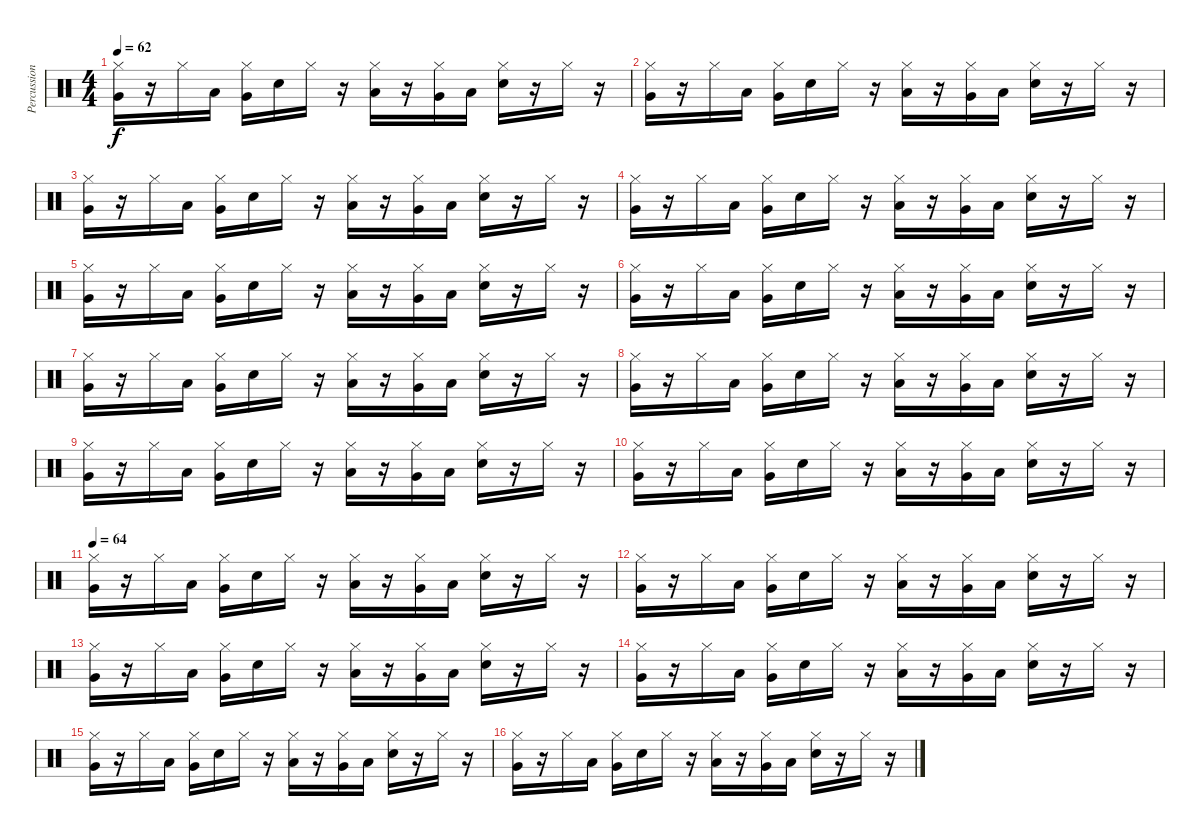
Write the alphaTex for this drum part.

\track ("Percussion" "Percussion") {instrument percussion}
\staff {score}
\articulation defaults
\ts (4 4)
\tempo 62
\clef neutral
\ks c
("Hi-Hat (closed)" "Very Low Tom (hit)").16{dy f} r.16 "Hi-Hat (closed)".16 "Low Floor Tom (hit)".16 ("Hi-Hat (closed)" "Very Low Tom (hit)").16 "Electric Snare (hit)".16 "Hi-Hat (closed)".16 r.16 ("Hi-Hat (closed)" "Low Floor Tom (hit)").16 r.16 ("Hi-Hat (closed)" "Very Low Tom (hit)").16 "Low Floor Tom (hit)".16 ("Hi-Hat (closed)" "Electric Snare (hit)").16 r.16 "Hi-Hat (closed)".16 r.16 |
("Hi-Hat (closed)" "Very Low Tom (hit)").16 r.16 "Hi-Hat (closed)".16 "Low Floor Tom (hit)".16 ("Hi-Hat (closed)" "Very Low Tom (hit)").16 "Electric Snare (hit)".16 "Hi-Hat (closed)".16 r.16 ("Hi-Hat (closed)" "Low Floor Tom (hit)").16 r.16 ("Hi-Hat (closed)" "Very Low Tom (hit)").16 "Low Floor Tom (hit)".16 ("Hi-Hat (closed)" "Electric Snare (hit)").16 r.16 "Hi-Hat (closed)".16 r.16 |
("Hi-Hat (closed)" "Very Low Tom (hit)").16 r.16 "Hi-Hat (closed)".16 "Low Floor Tom (hit)".16 ("Hi-Hat (closed)" "Very Low Tom (hit)").16 "Electric Snare (hit)".16 "Hi-Hat (closed)".16 r.16 ("Hi-Hat (closed)" "Low Floor Tom (hit)").16 r.16 ("Hi-Hat (closed)" "Very Low Tom (hit)").16 "Low Floor Tom (hit)".16 ("Hi-Hat (closed)" "Electric Snare (hit)").16 r.16 "Hi-Hat (closed)".16 r.16 |
("Hi-Hat (closed)" "Very Low Tom (hit)").16 r.16 "Hi-Hat (closed)".16 "Low Floor Tom (hit)".16 ("Hi-Hat (closed)" "Very Low Tom (hit)").16 "Electric Snare (hit)".16 "Hi-Hat (closed)".16 r.16 ("Hi-Hat (closed)" "Low Floor Tom (hit)").16 r.16 ("Hi-Hat (closed)" "Very Low Tom (hit)").16 "Low Floor Tom (hit)".16 ("Hi-Hat (closed)" "Electric Snare (hit)").16 r.16 "Hi-Hat (closed)".16 r.16 |
("Hi-Hat (closed)" "Very Low Tom (hit)").16 r.16 "Hi-Hat (closed)".16 "Low Floor Tom (hit)".16 ("Hi-Hat (closed)" "Very Low Tom (hit)").16 "Electric Snare (hit)".16 "Hi-Hat (closed)".16 r.16 ("Hi-Hat (closed)" "Low Floor Tom (hit)").16 r.16 ("Hi-Hat (closed)" "Very Low Tom (hit)").16 "Low Floor Tom (hit)".16 ("Hi-Hat (closed)" "Electric Snare (hit)").16 r.16 "Hi-Hat (closed)".16 r.16 |
("Hi-Hat (closed)" "Very Low Tom (hit)").16 r.16 "Hi-Hat (closed)".16 "Low Floor Tom (hit)".16 ("Hi-Hat (closed)" "Very Low Tom (hit)").16 "Electric Snare (hit)".16 "Hi-Hat (closed)".16 r.16 ("Hi-Hat (closed)" "Low Floor Tom (hit)").16 r.16 ("Hi-Hat (closed)" "Very Low Tom (hit)").16 "Low Floor Tom (hit)".16 ("Hi-Hat (closed)" "Electric Snare (hit)").16 r.16 "Hi-Hat (closed)".16 r.16 |
("Hi-Hat (closed)" "Very Low Tom (hit)").16 r.16 "Hi-Hat (closed)".16 "Low Floor Tom (hit)".16 ("Hi-Hat (closed)" "Very Low Tom (hit)").16 "Electric Snare (hit)".16 "Hi-Hat (closed)".16 r.16 ("Hi-Hat (closed)" "Low Floor Tom (hit)").16 r.16 ("Hi-Hat (closed)" "Very Low Tom (hit)").16 "Low Floor Tom (hit)".16 ("Hi-Hat (closed)" "Electric Snare (hit)").16 r.16 "Hi-Hat (closed)".16 r.16 |
("Hi-Hat (closed)" "Very Low Tom (hit)").16 r.16 "Hi-Hat (closed)".16 "Low Floor Tom (hit)".16 ("Hi-Hat (closed)" "Very Low Tom (hit)").16 "Electric Snare (hit)".16 "Hi-Hat (closed)".16 r.16 ("Hi-Hat (closed)" "Low Floor Tom (hit)").16 r.16 ("Hi-Hat (closed)" "Very Low Tom (hit)").16 "Low Floor Tom (hit)".16 ("Hi-Hat (closed)" "Electric Snare (hit)").16 r.16 "Hi-Hat (closed)".16 r.16 |
("Hi-Hat (closed)" "Very Low Tom (hit)").16 r.16 "Hi-Hat (closed)".16 "Low Floor Tom (hit)".16 ("Hi-Hat (closed)" "Very Low Tom (hit)").16 "Electric Snare (hit)".16 "Hi-Hat (closed)".16 r.16 ("Hi-Hat (closed)" "Low Floor Tom (hit)").16 r.16 ("Hi-Hat (closed)" "Very Low Tom (hit)").16 "Low Floor Tom (hit)".16 ("Hi-Hat (closed)" "Electric Snare (hit)").16 r.16 "Hi-Hat (closed)".16 r.16 |
("Hi-Hat (closed)" "Very Low Tom (hit)").16 r.16 "Hi-Hat (closed)".16 "Low Floor Tom (hit)".16 ("Hi-Hat (closed)" "Very Low Tom (hit)").16 "Electric Snare (hit)".16 "Hi-Hat (closed)".16 r.16 ("Hi-Hat (closed)" "Low Floor Tom (hit)").16 r.16 ("Hi-Hat (closed)" "Very Low Tom (hit)").16 "Low Floor Tom (hit)".16 ("Hi-Hat (closed)" "Electric Snare (hit)").16 r.16 "Hi-Hat (closed)".16 r.16 |
\tempo 64
("Hi-Hat (closed)" "Very Low Tom (hit)").16 r.16 "Hi-Hat (closed)".16 "Low Floor Tom (hit)".16 ("Hi-Hat (closed)" "Very Low Tom (hit)").16 "Electric Snare (hit)".16 "Hi-Hat (closed)".16 r.16 ("Hi-Hat (closed)" "Low Floor Tom (hit)").16 r.16 ("Hi-Hat (closed)" "Very Low Tom (hit)").16 "Low Floor Tom (hit)".16 ("Hi-Hat (closed)" "Electric Snare (hit)").16 r.16 "Hi-Hat (closed)".16 r.16 |
("Hi-Hat (closed)" "Very Low Tom (hit)").16 r.16 "Hi-Hat (closed)".16 "Low Floor Tom (hit)".16 ("Hi-Hat (closed)" "Very Low Tom (hit)").16 "Electric Snare (hit)".16 "Hi-Hat (closed)".16 r.16 ("Hi-Hat (closed)" "Low Floor Tom (hit)").16 r.16 ("Hi-Hat (closed)" "Very Low Tom (hit)").16 "Low Floor Tom (hit)".16 ("Hi-Hat (closed)" "Electric Snare (hit)").16 r.16 "Hi-Hat (closed)".16 r.16 |
("Hi-Hat (closed)" "Very Low Tom (hit)").16 r.16 "Hi-Hat (closed)".16 "Low Floor Tom (hit)".16 ("Hi-Hat (closed)" "Very Low Tom (hit)").16 "Electric Snare (hit)".16 "Hi-Hat (closed)".16 r.16 ("Hi-Hat (closed)" "Low Floor Tom (hit)").16 r.16 ("Hi-Hat (closed)" "Very Low Tom (hit)").16 "Low Floor Tom (hit)".16 ("Hi-Hat (closed)" "Electric Snare (hit)").16 r.16 "Hi-Hat (closed)".16 r.16 |
("Hi-Hat (closed)" "Very Low Tom (hit)").16 r.16 "Hi-Hat (closed)".16 "Low Floor Tom (hit)".16 ("Hi-Hat (closed)" "Very Low Tom (hit)").16 "Electric Snare (hit)".16 "Hi-Hat (closed)".16 r.16 ("Hi-Hat (closed)" "Low Floor Tom (hit)").16 r.16 ("Hi-Hat (closed)" "Very Low Tom (hit)").16 "Low Floor Tom (hit)".16 ("Hi-Hat (closed)" "Electric Snare (hit)").16 r.16 "Hi-Hat (closed)".16 r.16 |
("Hi-Hat (closed)" "Very Low Tom (hit)").16 r.16 "Hi-Hat (closed)".16 "Low Floor Tom (hit)".16 ("Hi-Hat (closed)" "Very Low Tom (hit)").16 "Electric Snare (hit)".16 "Hi-Hat (closed)".16 r.16 ("Hi-Hat (closed)" "Low Floor Tom (hit)").16 r.16 ("Hi-Hat (closed)" "Very Low Tom (hit)").16 "Low Floor Tom (hit)".16 ("Hi-Hat (closed)" "Electric Snare (hit)").16 r.16 "Hi-Hat (closed)".16 r.16 |
("Hi-Hat (closed)" "Very Low Tom (hit)").16 r.16 "Hi-Hat (closed)".16 "Low Floor Tom (hit)".16 ("Hi-Hat (closed)" "Very Low Tom (hit)").16 "Electric Snare (hit)".16 "Hi-Hat (closed)".16 r.16 ("Hi-Hat (closed)" "Low Floor Tom (hit)").16 r.16 ("Hi-Hat (closed)" "Very Low Tom (hit)").16 "Low Floor Tom (hit)".16 ("Hi-Hat (closed)" "Electric Snare (hit)").16 r.16 "Hi-Hat (closed)".16 r.16
